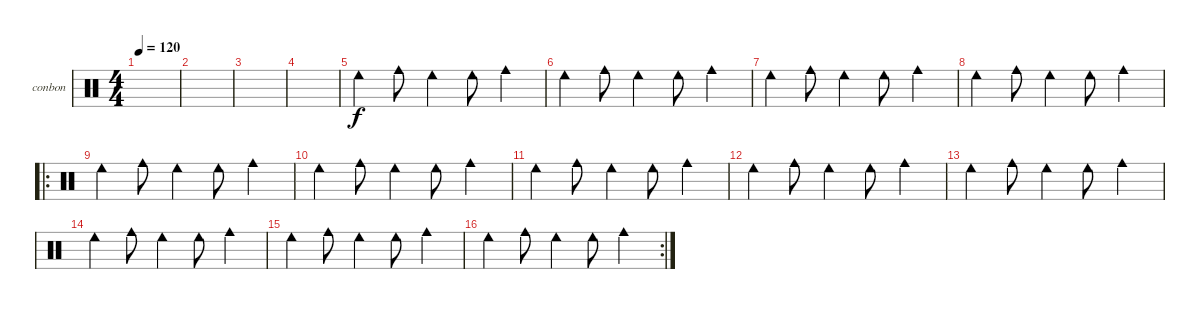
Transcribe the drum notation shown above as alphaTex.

\bracketExtendMode groupsimilarinstruments
\firstSystemTrackNameOrientation horizontal
\otherSystemsTrackNameOrientation horizontal
\track ("Bongos N Congas" "conbon") {instrument percussion}
\staff {score}
\articulation defaults
\ts (4 4)
\tempo 120
\clef neutral
\scale
0.474178
\ks c
|
|
|
|
"Cowbell low (hit)".4 "Cowbell medium (hit)".8 "Cowbell low (hit)".4 "Cowbell low (hit)".8 "Cowbell medium (hit)".4 |
"Cowbell low (hit)".4 "Cowbell medium (hit)".8 "Cowbell low (hit)".4 "Cowbell low (hit)".8 "Cowbell medium (hit)".4 |
"Cowbell low (hit)".4 "Cowbell medium (hit)".8 "Cowbell low (hit)".4 "Cowbell low (hit)".8 "Cowbell medium (hit)".4 |
"Cowbell low (hit)".4 "Cowbell medium (hit)".8 "Cowbell low (hit)".4 "Cowbell low (hit)".8 "Cowbell medium (hit)".4 |
\ro "Cowbell low (hit)".4 "Cowbell medium (hit)".8 "Cowbell low (hit)".4 "Cowbell low (hit)".8 "Cowbell medium (hit)".4
|
"Cowbell low (hit)".4 "Cowbell medium (hit)".8 "Cowbell low (hit)".4 "Cowbell low (hit)".8 "Cowbell medium (hit)".4 |
"Cowbell low (hit)".4 "Cowbell medium (hit)".8 "Cowbell low (hit)".4 "Cowbell low (hit)".8 "Cowbell medium (hit)".4 |
"Cowbell low (hit)".4 "Cowbell medium (hit)".8 "Cowbell low (hit)".4 "Cowbell low (hit)".8 "Cowbell medium (hit)".4 |
"Cowbell low (hit)".4 "Cowbell medium (hit)".8 "Cowbell low (hit)".4 "Cowbell low (hit)".8 "Cowbell medium (hit)".4 |
"Cowbell low (hit)".4 "Cowbell medium (hit)".8 "Cowbell low (hit)".4 "Cowbell low (hit)".8 "Cowbell medium (hit)".4 |
"Cowbell low (hit)".4 "Cowbell medium (hit)".8 "Cowbell low (hit)".4 "Cowbell low (hit)".8 "Cowbell medium (hit)".4 |
\rc 2 "Cowbell low (hit)".4 "Cowbell medium (hit)".8 "Cowbell low (hit)".4 "Cowbell low (hit)".8 "Cowbell medium (hit)".4
